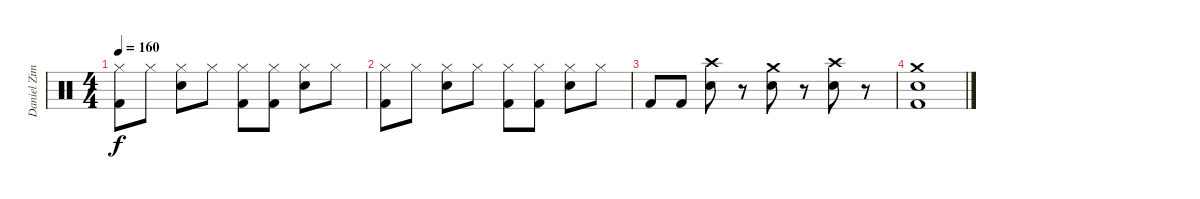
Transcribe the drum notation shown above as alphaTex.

\track ("Daniel Zimmermann" "Daniel Zim") {instrument percussion}
\staff {score}
\articulation defaults
\ts (4 4)
\tempo 160
\clef neutral
\ks c
("Hi-Hat (closed)" "Kick (hit) 2").8{dy f} "Hi-Hat (closed)".8 ("Hi-Hat (closed)" "Snare (hit) 2").8 "Hi-Hat (closed)".8 ("Hi-Hat (closed)" "Kick (hit) 2").8 ("Hi-Hat (closed)" "Kick (hit) 2").8 ("Hi-Hat (closed)" "Snare (hit) 2").8 "Hi-Hat (closed)".8 |
("Hi-Hat (closed)" "Kick (hit) 2").8 "Hi-Hat (closed)".8 ("Hi-Hat (closed)" "Snare (hit) 2").8 "Hi-Hat (closed)".8 ("Hi-Hat (closed)" "Kick (hit) 2").8 ("Hi-Hat (closed)" "Kick (hit) 2").8 ("Hi-Hat (closed)" "Snare (hit) 2").8 "Hi-Hat (closed)".8 |
"Kick (hit) 2".8 "Kick (hit) 2".8 ("Snare (hit) 2" "Crash high (hit)").8 r.8 ("Snare (hit) 2" "Crash medium (hit)").8 r.8 ("Snare (hit) 2" "Crash high (hit)").8 r.8 |
("Kick (hit) 2" "Snare (hit) 2" "Crash medium (hit)").1
